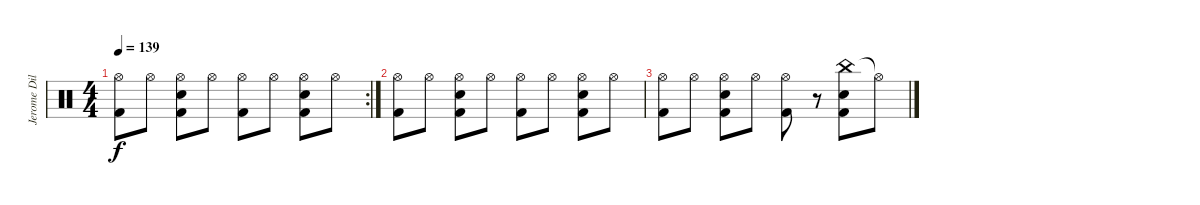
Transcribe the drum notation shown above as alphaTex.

\track ("Jerome Dillon - Batería" "Jerome Dil") {instrument percussion}
\staff {score}
\articulation defaults
\rc 2
\ts (4 4)
\tempo 139
\clef neutral
\ks c
("Hi-Hat (open)" "Kick (hit) 2").8{dy f} "Hi-Hat (open)".8 ("Hi-Hat (open)" "Kick (hit) 2" "Electric Snare (hit)").8 "Hi-Hat (open)".8 ("Hi-Hat (open)" "Kick (hit) 2").8 "Hi-Hat (open)".8 ("Hi-Hat (open)" "Electric Snare (hit)" "Kick (hit) 2").8 "Hi-Hat (open)".8 |
("Hi-Hat (open)" "Kick (hit) 2").8 "Hi-Hat (open)".8 ("Hi-Hat (open)" "Kick (hit) 2" "Electric Snare (hit)").8 "Hi-Hat (open)".8 ("Hi-Hat (open)" "Kick (hit) 2").8 "Hi-Hat (open)".8 ("Hi-Hat (open)" "Electric Snare (hit)" "Kick (hit) 2").8 "Hi-Hat (open)".8 |
("Hi-Hat (open)" "Kick (hit) 2").8 "Hi-Hat (open)".8 ("Hi-Hat (open)" "Kick (hit) 2" "Electric Snare (hit)").8 "Hi-Hat (open)".8 ("Hi-Hat (open)" "Kick (hit) 2").8 r.8 ("China (hit)" "Kick (hit) 2" "Electric Snare (hit)").8 "Hi-Hat (open)"{t}.8
